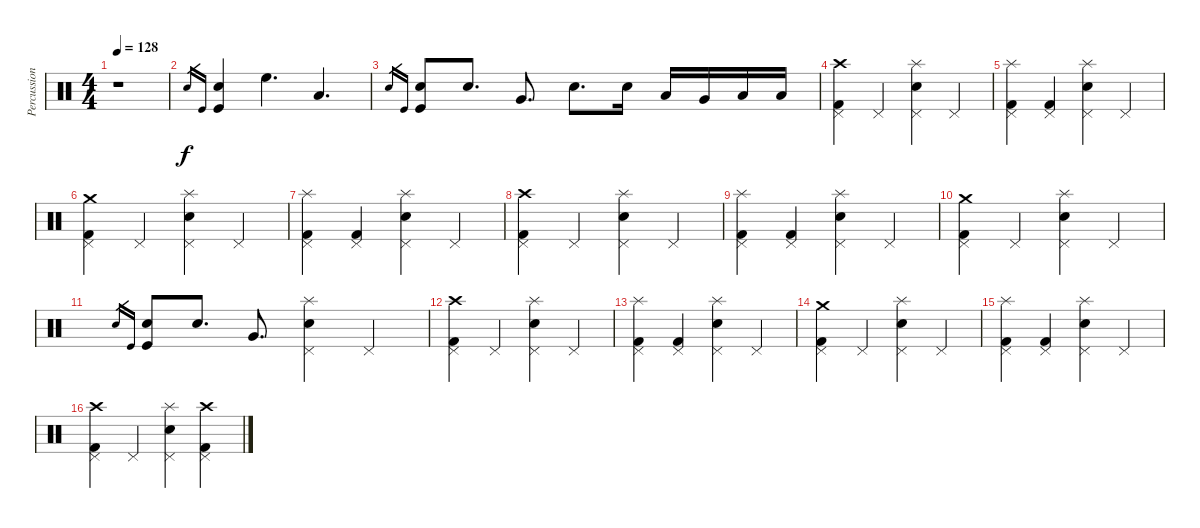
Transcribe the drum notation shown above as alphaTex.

\track ("Percussion" "Percussion") {instrument percussion}
\staff {score}
\articulation defaults
\ts (4 4)
\tempo 128
\clef neutral
\ks c
r.1{dy f} |
"Electric Snare (hit)".16{gr} "Kick (hit)"{h}.16{gr} ("Snare (hit) 2" "Kick (hit)").4 "High Floor Tom (hit)".4{d} "Low Tom (hit)".4{d} |
"Electric Snare (hit)".16{gr} "Kick (hit)"{h}.16{gr} ("Snare (hit) 2" "Kick (hit)").8 "Snare (hit) 2".8{d} "Very Low Tom (hit)".8{d} "Snare (hit) 2".8{d} "Snare (hit) 2".16 "Low Tom (hit)".16 "Very Low Tom (hit)".16 "Low Floor Tom (hit)".16 "Low Floor Tom (hit)".16 |
("Crash high (hit)" "Kick (hit) 2" "Pedal Hi-Hat (hit)").4 "Pedal Hi-Hat (hit)".4 ("Splash (hit)" "Electric Snare (hit)" "Pedal Hi-Hat (hit)").4 "Pedal Hi-Hat (hit)".4 |
("Splash (hit)" "Kick (hit) 2" "Pedal Hi-Hat (hit)").4 ("Kick (hit) 2" "Pedal Hi-Hat (hit)").4 ("Splash (hit)" "Electric Snare (hit)" "Pedal Hi-Hat (hit)").4 "Pedal Hi-Hat (hit)".4 |
("Crash medium (hit)" "Kick (hit) 2" "Pedal Hi-Hat (hit)").4 "Pedal Hi-Hat (hit)".4 ("Splash (hit)" "Electric Snare (hit)" "Pedal Hi-Hat (hit)").4 "Pedal Hi-Hat (hit)".4 |
("Splash (hit)" "Kick (hit) 2" "Pedal Hi-Hat (hit)").4 ("Kick (hit) 2" "Pedal Hi-Hat (hit)").4 ("Splash (hit)" "Electric Snare (hit)" "Pedal Hi-Hat (hit)").4 "Pedal Hi-Hat (hit)".4 |
("Crash high (hit)" "Kick (hit) 2" "Pedal Hi-Hat (hit)").4 "Pedal Hi-Hat (hit)".4 ("Splash (hit)" "Electric Snare (hit)" "Pedal Hi-Hat (hit)").4 "Pedal Hi-Hat (hit)".4 |
("Splash (hit)" "Kick (hit) 2" "Pedal Hi-Hat (hit)").4 ("Kick (hit) 2" "Pedal Hi-Hat (hit)").4 ("Splash (hit)" "Electric Snare (hit)" "Pedal Hi-Hat (hit)").4 "Pedal Hi-Hat (hit)".4 |
("Crash medium (hit)" "Kick (hit) 2" "Pedal Hi-Hat (hit)").4 "Pedal Hi-Hat (hit)".4 ("Splash (hit)" "Electric Snare (hit)" "Pedal Hi-Hat (hit)").4 "Pedal Hi-Hat (hit)".4 |
"Electric Snare (hit)".16{gr} "Kick (hit)"{h}.16{gr} ("Snare (hit) 2" "Kick (hit)").8 "Snare (hit) 2".8{d} "Very Low Tom (hit)".8{d} ("Splash (hit)" "Electric Snare (hit)" "Pedal Hi-Hat (hit)").4 "Pedal Hi-Hat (hit)".4 |
("Crash high (hit)" "Kick (hit) 2" "Pedal Hi-Hat (hit)").4 "Pedal Hi-Hat (hit)".4 ("Splash (hit)" "Electric Snare (hit)" "Pedal Hi-Hat (hit)").4 "Pedal Hi-Hat (hit)".4 |
("Splash (hit)" "Kick (hit) 2" "Pedal Hi-Hat (hit)").4 ("Kick (hit) 2" "Pedal Hi-Hat (hit)").4 ("Splash (hit)" "Electric Snare (hit)" "Pedal Hi-Hat (hit)").4 "Pedal Hi-Hat (hit)".4 |
("Crash medium (hit)" "Kick (hit) 2" "Pedal Hi-Hat (hit)").4 "Pedal Hi-Hat (hit)".4 ("Splash (hit)" "Electric Snare (hit)" "Pedal Hi-Hat (hit)").4 "Pedal Hi-Hat (hit)".4 |
("Splash (hit)" "Kick (hit) 2" "Pedal Hi-Hat (hit)").4 ("Kick (hit) 2" "Pedal Hi-Hat (hit)").4 ("Splash (hit)" "Electric Snare (hit)" "Pedal Hi-Hat (hit)").4 "Pedal Hi-Hat (hit)".4 |
("Crash high (hit)" "Kick (hit) 2" "Pedal Hi-Hat (hit)").4 "Pedal Hi-Hat (hit)".4 ("Splash (hit)" "Electric Snare (hit)" "Pedal Hi-Hat (hit)").4 ("Crash high (hit)" "Kick (hit) 2" "Pedal Hi-Hat (hit)").4
